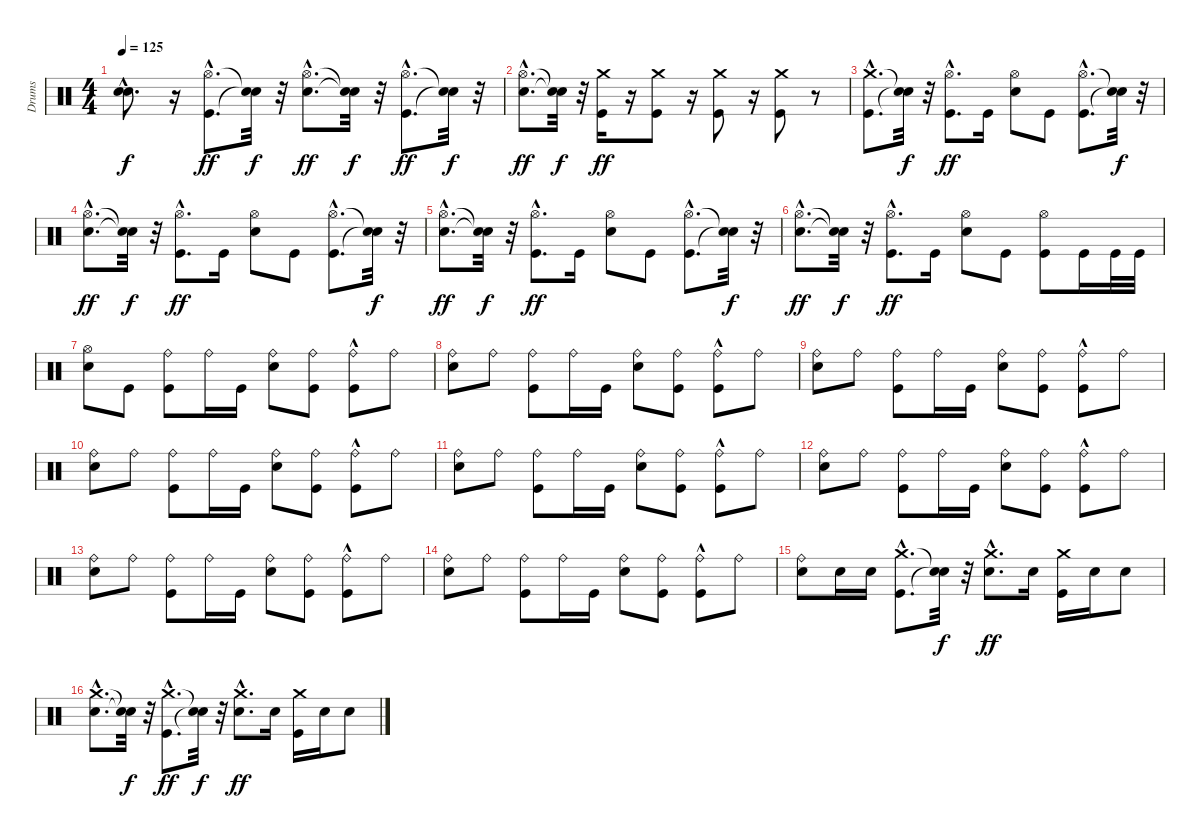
\track ("Drums" "Drums") {instrument percussion}
\staff {score}
\articulation defaults
\ts (4 4)
\tempo 125
\clef neutral
\ks c
("Snare (hit)"{hac t} "Snare (hit)"{hac t}).8{d dy f} r.16 ("Kick (hit)"{hac} "Hi-Hat (open)"{hac}).8{d dy ff} ("Snare (hit)"{t} "Snare (hit)"{t}).32{dy f} r.32 ("Electric Snare (hit)"{hac} "Hi-Hat (open)"{hac}).8{d dy ff} ("Snare (hit)"{t} "Snare (hit)"{t}).32{dy f} r.32 ("Kick (hit)"{hac} "Hi-Hat (open)"{hac}).8{d dy ff} ("Snare (hit)"{t} "Snare (hit)"{t}).32{dy f} r.32 |
("Electric Snare (hit)"{hac} "Hi-Hat (open)"{hac}).8{d dy ff} ("Snare (hit)"{t} "Snare (hit)"{t}).32{dy f} r.32 ("Kick (hit)" "Crash medium (hit)").16{dy ff} r.16 ("Kick (hit)" "Crash medium (hit)").8 r.16 ("Kick (hit)" "Crash medium (hit)").8 r.16 ("Kick (hit)" "Crash medium (hit)").8 r.8 |
("Kick (hit)"{hac} "Crash medium (hit)"{hac}).8{d} ("Snare (hit)"{t} "Snare (hit)"{t}).32{dy f} r.32 ("Kick (hit)"{hac} "Hi-Hat (open)"{hac}).8{d dy ff} "Kick (hit)".16 ("Electric Snare (hit)" "Hi-Hat (open)").8 "Kick (hit)".8 ("Kick (hit)"{hac} "Hi-Hat (open)"{hac}).8{d} ("Snare (hit)"{t} "Snare (hit)"{t}).32{dy f} r.32 |
("Electric Snare (hit)"{hac} "Hi-Hat (open)"{hac}).8{d dy ff} ("Snare (hit)"{t} "Snare (hit)"{t}).32{dy f} r.32 ("Kick (hit)"{hac} "Hi-Hat (open)"{hac}).8{d dy ff} "Kick (hit)".16 ("Electric Snare (hit)" "Hi-Hat (open)").8 "Kick (hit)".8 ("Kick (hit)"{hac} "Hi-Hat (open)"{hac}).8{d} ("Snare (hit)"{t} "Snare (hit)"{t}).32{dy f} r.32 |
("Electric Snare (hit)"{hac} "Hi-Hat (open)"{hac}).8{d dy ff} ("Snare (hit)"{t} "Snare (hit)"{t}).32{dy f} r.32 ("Kick (hit)"{hac} "Hi-Hat (open)"{hac}).8{d dy ff} "Kick (hit)".16 ("Electric Snare (hit)" "Hi-Hat (open)").8 "Kick (hit)".8 ("Kick (hit)"{hac} "Hi-Hat (open)"{hac}).8{d} ("Snare (hit)"{t} "Snare (hit)"{t}).32{dy f} r.32 |
("Electric Snare (hit)"{hac} "Hi-Hat (open)"{hac}).8{d dy ff} ("Snare (hit)"{t} "Snare (hit)"{t}).32{dy f} r.32 ("Kick (hit)"{hac} "Hi-Hat (open)"{hac}).8{d dy ff} "Kick (hit)".16 ("Electric Snare (hit)" "Hi-Hat (open)").8 "Kick (hit)".8 ("Kick (hit)" "Hi-Hat (open)").8 "Kick (hit)".16 "Kick (hit)".32 "Kick (hit)".32 |
("Electric Snare (hit)" "Hi-Hat (open)").8 "Kick (hit)".8 ("Kick (hit)" "Ride (bell)").8 "Ride (bell)".16 "Kick (hit)".16 ("Electric Snare (hit)" "Ride (bell)").8 ("Kick (hit)" "Ride (bell)").8 ("Kick (hit)"{hac} "Ride (bell)").8 "Ride (bell)".8 |
("Electric Snare (hit)" "Ride (bell)").8 "Ride (bell)".8 ("Kick (hit)" "Ride (bell)").8 "Ride (bell)".16 "Kick (hit)".16 ("Electric Snare (hit)" "Ride (bell)").8 ("Kick (hit)" "Ride (bell)").8 ("Kick (hit)"{hac} "Ride (bell)").8 "Ride (bell)".8 |
("Electric Snare (hit)" "Ride (bell)").8 "Ride (bell)".8 ("Kick (hit)" "Ride (bell)").8 "Ride (bell)".16 "Kick (hit)".16 ("Electric Snare (hit)" "Ride (bell)").8 ("Kick (hit)" "Ride (bell)").8 ("Kick (hit)"{hac} "Ride (bell)").8 "Ride (bell)".8 |
("Electric Snare (hit)" "Ride (bell)").8 "Ride (bell)".8 ("Kick (hit)" "Ride (bell)").8 "Ride (bell)".16 "Kick (hit)".16 ("Electric Snare (hit)" "Ride (bell)").8 ("Kick (hit)" "Ride (bell)").8 ("Kick (hit)"{hac} "Ride (bell)").8 "Ride (bell)".8 |
("Electric Snare (hit)" "Ride (bell)").8 "Ride (bell)".8 ("Kick (hit)" "Ride (bell)").8 "Ride (bell)".16 "Kick (hit)".16 ("Electric Snare (hit)" "Ride (bell)").8 ("Kick (hit)" "Ride (bell)").8 ("Kick (hit)"{hac} "Ride (bell)").8 "Ride (bell)".8 |
("Electric Snare (hit)" "Ride (bell)").8 "Ride (bell)".8 ("Kick (hit)" "Ride (bell)").8 "Ride (bell)".16 "Kick (hit)".16 ("Electric Snare (hit)" "Ride (bell)").8 ("Kick (hit)" "Ride (bell)").8 ("Kick (hit)"{hac} "Ride (bell)").8 "Ride (bell)".8 |
("Electric Snare (hit)" "Ride (bell)").8 "Ride (bell)".8 ("Kick (hit)" "Ride (bell)").8 "Ride (bell)".16 "Kick (hit)".16 ("Electric Snare (hit)" "Ride (bell)").8 ("Kick (hit)" "Ride (bell)").8 ("Kick (hit)"{hac} "Ride (bell)").8 "Ride (bell)".8 |
("Electric Snare (hit)" "Ride (bell)").8 "Ride (bell)".8 ("Kick (hit)" "Ride (bell)").8 "Ride (bell)".16 "Kick (hit)".16 ("Electric Snare (hit)" "Ride (bell)").8 ("Kick (hit)" "Ride (bell)").8 ("Kick (hit)"{hac} "Ride (bell)").8 "Ride (bell)".8 |
("Electric Snare (hit)" "Ride (bell)").8 "Electric Snare (hit)".16 "Electric Snare (hit)".16 ("Kick (hit)"{hac} "Crash medium (hit)"{hac}).8{d} ("Snare (hit)"{t} "Snare (hit)"{t}).32{dy f} r.32 ("Electric Snare (hit)"{hac} "Crash medium (hit)"{hac}).8{d dy ff} "Electric Snare (hit)".16 ("Kick (hit)" "Crash medium (hit)").16 "Electric Snare (hit)".16 "Electric Snare (hit)".8 |
("Electric Snare (hit)"{hac} "Crash medium (hit)"{hac}).8{d} ("Snare (hit)"{t} "Snare (hit)"{t}).32{dy f} r.32 ("Kick (hit)"{hac} "Crash medium (hit)"{hac}).8{d dy ff} ("Snare (hit)"{t} "Snare (hit)"{t}).32{dy f} r.32 ("Electric Snare (hit)"{hac} "Crash medium (hit)"{hac}).8{d dy ff} "Electric Snare (hit)".16 ("Kick (hit)" "Crash medium (hit)").16 "Electric Snare (hit)".16 "Electric Snare (hit)".8
